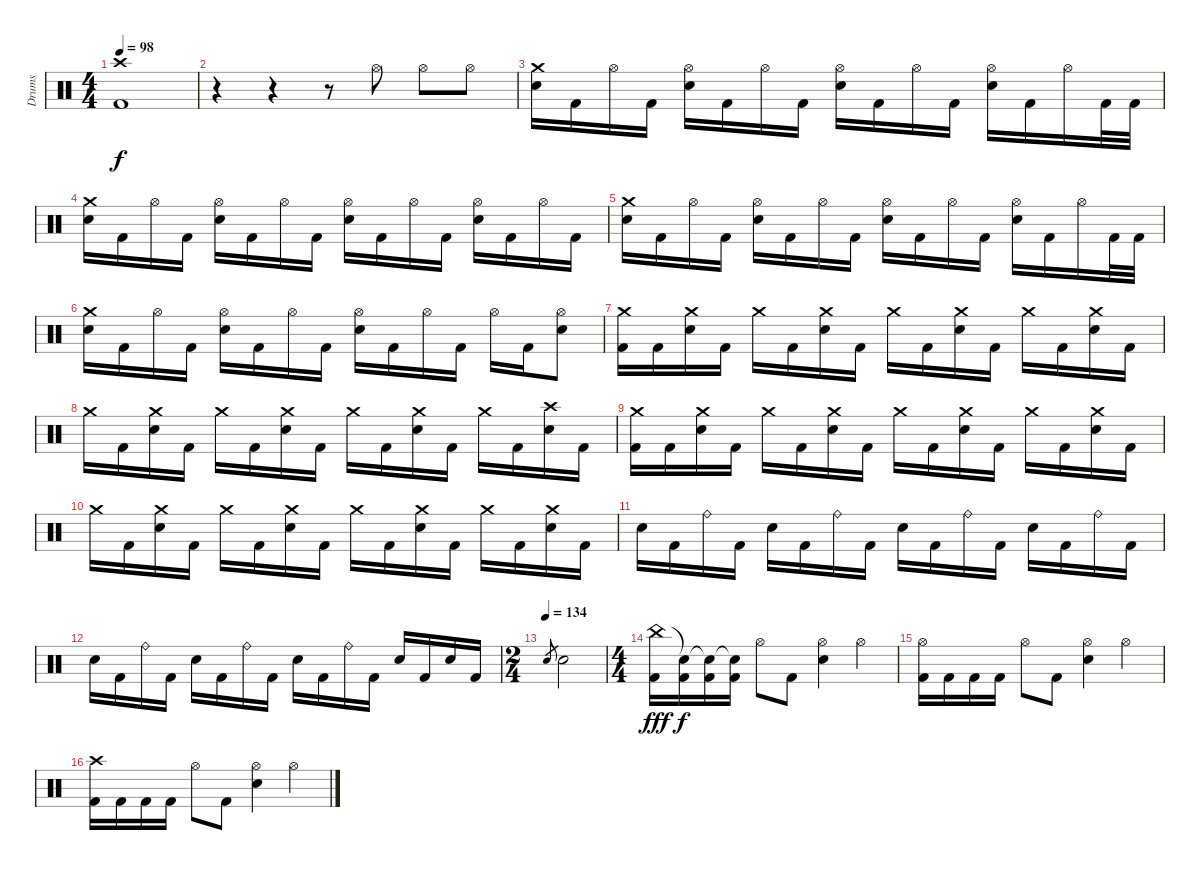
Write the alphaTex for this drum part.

\track ("Drums" "Drums") {instrument percussion}
\staff {score}
\articulation defaults
\ts (4 4)
\tempo 98
\clef neutral
\ks c
("Crash high (hit)" "Kick (hit) 2").1{dy f} |
r.4 r.4 r.8 "Hi-Hat (open)".8 "Hi-Hat (open)".8 "Hi-Hat (open)".8 |
("Crash medium (hit)" "Electric Snare (hit)").16 "Kick (hit) 2".16 "Hi-Hat (open)".16 "Kick (hit) 2".16 ("Hi-Hat (open)" "Electric Snare (hit)").16 "Kick (hit) 2".16 "Hi-Hat (open)".16 "Kick (hit) 2".16 ("Hi-Hat (open)" "Electric Snare (hit)").16 "Kick (hit) 2".16 "Hi-Hat (open)".16 "Kick (hit) 2".16 ("Hi-Hat (open)" "Electric Snare (hit)").16 "Kick (hit) 2".16 "Hi-Hat (open)".16 "Kick (hit) 2".32 "Kick (hit) 2".32 |
("Crash medium (hit)" "Electric Snare (hit)").16 "Kick (hit) 2".16 "Hi-Hat (open)".16 "Kick (hit) 2".16 ("Hi-Hat (open)" "Electric Snare (hit)").16 "Kick (hit) 2".16 "Hi-Hat (open)".16 "Kick (hit) 2".16 ("Hi-Hat (open)" "Electric Snare (hit)").16 "Kick (hit) 2".16 "Hi-Hat (open)".16 "Kick (hit) 2".16 ("Hi-Hat (open)" "Electric Snare (hit)").16 "Kick (hit) 2".16 "Hi-Hat (open)".16 "Kick (hit) 2".16 |
("Crash medium (hit)" "Electric Snare (hit)").16 "Kick (hit) 2".16 "Hi-Hat (open)".16 "Kick (hit) 2".16 ("Hi-Hat (open)" "Electric Snare (hit)").16 "Kick (hit) 2".16 "Hi-Hat (open)".16 "Kick (hit) 2".16 ("Hi-Hat (open)" "Electric Snare (hit)").16 "Kick (hit) 2".16 "Hi-Hat (open)".16 "Kick (hit) 2".16 ("Hi-Hat (open)" "Electric Snare (hit)").16 "Kick (hit) 2".16 "Hi-Hat (open)".16 "Kick (hit) 2".32 "Kick (hit) 2".32 |
("Crash medium (hit)" "Electric Snare (hit)").16 "Kick (hit) 2".16 "Hi-Hat (open)".16 "Kick (hit) 2".16 ("Hi-Hat (open)" "Electric Snare (hit)").16 "Kick (hit) 2".16 "Hi-Hat (open)".16 "Kick (hit) 2".16 ("Hi-Hat (open)" "Electric Snare (hit)").16 "Kick (hit) 2".16 "Hi-Hat (open)".16 "Kick (hit) 2".16 "Hi-Hat (open)".16 "Kick (hit) 2".16 ("Hi-Hat (open)" "Electric Snare (hit)").8 |
("Crash medium (hit)" "Kick (hit) 2").16 "Kick (hit) 2".16 ("Crash medium (hit)" "Electric Snare (hit)").16 "Kick (hit) 2".16 "Crash medium (hit)".16 "Kick (hit) 2".16 ("Crash medium (hit)" "Electric Snare (hit)").16 "Kick (hit) 2".16 "Crash medium (hit)".16 "Kick (hit) 2".16 ("Crash medium (hit)" "Electric Snare (hit)").16 "Kick (hit) 2".16 "Crash medium (hit)".16 "Kick (hit) 2".16 ("Crash medium (hit)" "Electric Snare (hit)").16 "Kick (hit) 2".16 |
"Crash medium (hit)".16 "Kick (hit) 2".16 ("Crash medium (hit)" "Electric Snare (hit)").16 "Kick (hit) 2".16 "Crash medium (hit)".16 "Kick (hit) 2".16 ("Crash medium (hit)" "Electric Snare (hit)").16 "Kick (hit) 2".16 "Crash medium (hit)".16 "Kick (hit) 2".16 ("Crash medium (hit)" "Electric Snare (hit)").16 "Kick (hit) 2".16 "Crash medium (hit)".16 "Kick (hit) 2".16 ("Crash high (hit)" "Electric Snare (hit)").16 "Kick (hit) 2".16 |
("Crash medium (hit)" "Kick (hit) 2").16 "Kick (hit) 2".16 ("Crash medium (hit)" "Electric Snare (hit)").16 "Kick (hit) 2".16 "Crash medium (hit)".16 "Kick (hit) 2".16 ("Crash medium (hit)" "Electric Snare (hit)").16 "Kick (hit) 2".16 "Crash medium (hit)".16 "Kick (hit) 2".16 ("Crash medium (hit)" "Electric Snare (hit)").16 "Kick (hit) 2".16 "Crash medium (hit)".16 "Kick (hit) 2".16 ("Crash medium (hit)" "Electric Snare (hit)").16 "Kick (hit) 2".16 |
"Crash medium (hit)".16 "Kick (hit) 2".16 ("Crash medium (hit)" "Electric Snare (hit)").16 "Kick (hit) 2".16 "Crash medium (hit)".16 "Kick (hit) 2".16 ("Crash medium (hit)" "Electric Snare (hit)").16 "Kick (hit) 2".16 "Crash medium (hit)".16 "Kick (hit) 2".16 ("Crash medium (hit)" "Electric Snare (hit)").16 "Kick (hit) 2".16 "Crash medium (hit)".16 "Kick (hit) 2".16 ("Crash medium (hit)" "Electric Snare (hit)").16 "Kick (hit) 2".16 |
"Electric Snare (hit)".16 "Kick (hit) 2".16 "Ride (bell)".16 "Kick (hit) 2".16 "Electric Snare (hit)".16 "Kick (hit) 2".16 "Ride (bell)".16 "Kick (hit) 2".16 "Electric Snare (hit)".16 "Kick (hit) 2".16 "Ride (bell)".16 "Kick (hit) 2".16 "Electric Snare (hit)".16 "Kick (hit) 2".16 "Ride (bell)".16 "Kick (hit) 2".16 |
"Electric Snare (hit)".16 "Kick (hit) 2".16 "Ride (bell)".16 "Kick (hit) 2".16 "Electric Snare (hit)".16 "Kick (hit) 2".16 "Ride (bell)".16 "Kick (hit) 2".16 "Electric Snare (hit)".16 "Kick (hit) 2".16 "Ride (bell)".16 "Kick (hit) 2".16 "Electric Snare (hit)".16 "Kick (hit) 2".16 "Electric Snare (hit)".16 "Kick (hit) 2".16 |
\ts (2 4)
\tempo (134)
"Electric Snare (hit)".8{gr} "Electric Snare (hit)".2 |
\ts (4 4)
("China (hit)" "Kick (hit) 2").16{dy fff} ("Snare (hit)"{t} "Kick (hit) 2").16{dy f} ("Snare (hit)"{t} "Kick (hit) 2").16 ("Snare (hit)"{t} "Kick (hit) 2").16 "Hi-Hat (open)".8 "Kick (hit) 2".8 ("Hi-Hat (open)" "Electric Snare (hit)").4 "Hi-Hat (open)".4 |
("Hi-Hat (open)" "Kick (hit) 2").16 "Kick (hit) 2".16 "Kick (hit) 2".16 "Kick (hit) 2".16 "Hi-Hat (open)".8 "Kick (hit) 2".8 ("Hi-Hat (open)" "Electric Snare (hit)").4 "Hi-Hat (open)".4 |
("Crash high (hit)" "Kick (hit) 2").16 "Kick (hit) 2".16 "Kick (hit) 2".16 "Kick (hit) 2".16 "Hi-Hat (open)".8 "Kick (hit) 2".8 ("Hi-Hat (open)" "Electric Snare (hit)").4 "Hi-Hat (open)".4
